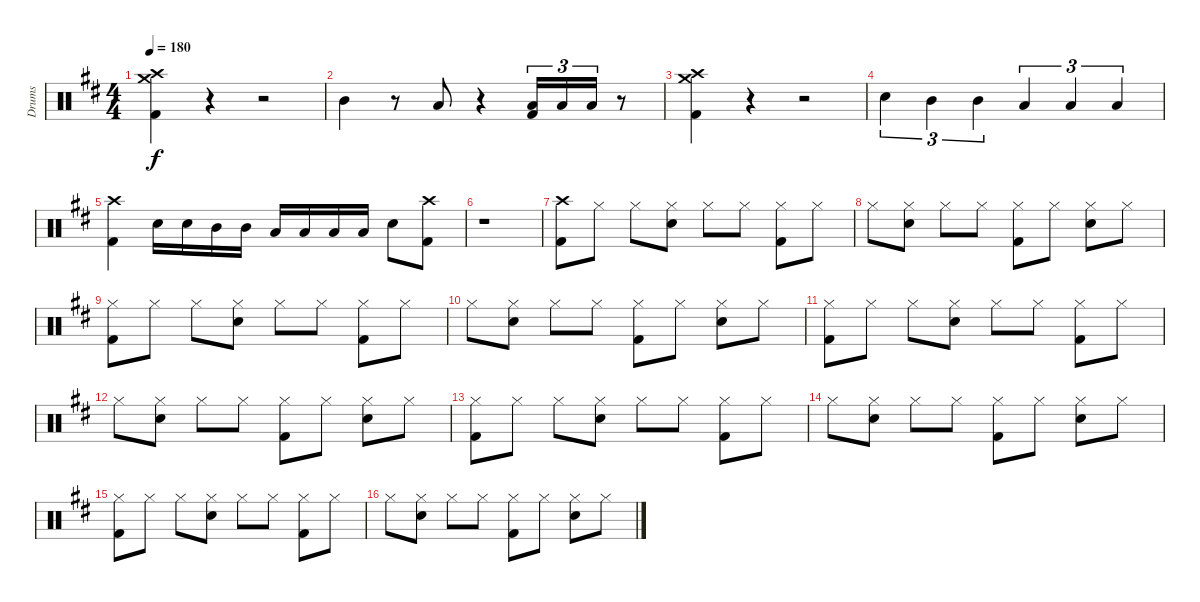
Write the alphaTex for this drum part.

\track ("Drums" "Drums") {instrument percussion}
\staff {score}
\articulation defaults
\ts (4 4)
\tempo 180
\clef neutral
\ks bminor
("Crash high (hit)" "Crash medium (hit)" "Kick (hit) 2").4{dy f} r.4 r.2 |
"Mid Tom (hit)".4 r.8 "Low Tom (hit)".8 r.4 ("Low Floor Tom (hit)" "Kick (hit) 2").16{tu (3 2)} "Low Floor Tom (hit)".16{tu (3 2)} "Low Floor Tom (hit)".16{tu (3 2)} r.8 |
("Crash high (hit)" "Crash medium (hit)" "Kick (hit) 2").4 r.4 r.2 |
"Electric Snare (hit)".4{tu (3 2)} "Mid Tom (hit)".4{tu (3 2)} "Mid Tom (hit)".4{tu (3 2)} "Low Tom (hit)".4{tu (3 2)} "Low Tom (hit)".4{tu (3 2)} "Low Tom (hit)".4{tu (3 2)} |
("Crash high (hit)" "Kick (hit) 2").4 "Electric Snare (hit)".16 "Electric Snare (hit)".16 "Mid Tom (hit)".16 "Mid Tom (hit)".16 "Low Tom (hit)".16 "Low Tom (hit)".16 "Low Tom (hit)".16 "Low Tom (hit)".16 "Electric Snare (hit)".8 ("Crash high (hit)" "Kick (hit) 2").8 |
r.1 |
("Crash high (hit)" "Kick (hit) 2").8 "Hi-Hat (closed)".8 "Hi-Hat (closed)".8 ("Hi-Hat (closed)" "Electric Snare (hit)").8 "Hi-Hat (closed)".8 "Hi-Hat (closed)".8 ("Hi-Hat (closed)" "Kick (hit) 2").8 "Hi-Hat (closed)".8 |
"Hi-Hat (closed)".8 ("Hi-Hat (closed)" "Electric Snare (hit)").8 "Hi-Hat (closed)".8 "Hi-Hat (closed)".8 ("Hi-Hat (closed)" "Kick (hit) 2").8 "Hi-Hat (closed)".8 ("Hi-Hat (closed)" "Electric Snare (hit)").8 "Hi-Hat (closed)".8 |
("Hi-Hat (closed)" "Kick (hit) 2").8 "Hi-Hat (closed)".8 "Hi-Hat (closed)".8 ("Hi-Hat (closed)" "Electric Snare (hit)").8 "Hi-Hat (closed)".8 "Hi-Hat (closed)".8 ("Hi-Hat (closed)" "Kick (hit) 2").8 "Hi-Hat (closed)".8 |
"Hi-Hat (closed)".8 ("Hi-Hat (closed)" "Electric Snare (hit)").8 "Hi-Hat (closed)".8 "Hi-Hat (closed)".8 ("Hi-Hat (closed)" "Kick (hit) 2").8 "Hi-Hat (closed)".8 ("Hi-Hat (closed)" "Electric Snare (hit)").8 "Hi-Hat (closed)".8 |
("Hi-Hat (closed)" "Kick (hit) 2").8 "Hi-Hat (closed)".8 "Hi-Hat (closed)".8 ("Hi-Hat (closed)" "Electric Snare (hit)").8 "Hi-Hat (closed)".8 "Hi-Hat (closed)".8 ("Hi-Hat (closed)" "Kick (hit) 2").8 "Hi-Hat (closed)".8 |
"Hi-Hat (closed)".8 ("Hi-Hat (closed)" "Electric Snare (hit)").8 "Hi-Hat (closed)".8 "Hi-Hat (closed)".8 ("Hi-Hat (closed)" "Kick (hit) 2").8 "Hi-Hat (closed)".8 ("Hi-Hat (closed)" "Electric Snare (hit)").8 "Hi-Hat (closed)".8 |
("Hi-Hat (closed)" "Kick (hit) 2").8 "Hi-Hat (closed)".8 "Hi-Hat (closed)".8 ("Hi-Hat (closed)" "Electric Snare (hit)").8 "Hi-Hat (closed)".8 "Hi-Hat (closed)".8 ("Hi-Hat (closed)" "Kick (hit) 2").8 "Hi-Hat (closed)".8 |
"Hi-Hat (closed)".8 ("Hi-Hat (closed)" "Electric Snare (hit)").8 "Hi-Hat (closed)".8 "Hi-Hat (closed)".8 ("Hi-Hat (closed)" "Kick (hit) 2").8 "Hi-Hat (closed)".8 ("Hi-Hat (closed)" "Electric Snare (hit)").8 "Hi-Hat (closed)".8 |
("Hi-Hat (closed)" "Kick (hit) 2").8 "Hi-Hat (closed)".8 "Hi-Hat (closed)".8 ("Hi-Hat (closed)" "Electric Snare (hit)").8 "Hi-Hat (closed)".8 "Hi-Hat (closed)".8 ("Hi-Hat (closed)" "Kick (hit) 2").8 "Hi-Hat (closed)".8 |
"Hi-Hat (closed)".8 ("Hi-Hat (closed)" "Electric Snare (hit)").8 "Hi-Hat (closed)".8 "Hi-Hat (closed)".8 ("Hi-Hat (closed)" "Kick (hit) 2").8 "Hi-Hat (closed)".8 ("Hi-Hat (closed)" "Electric Snare (hit)").8 "Hi-Hat (closed)".8
